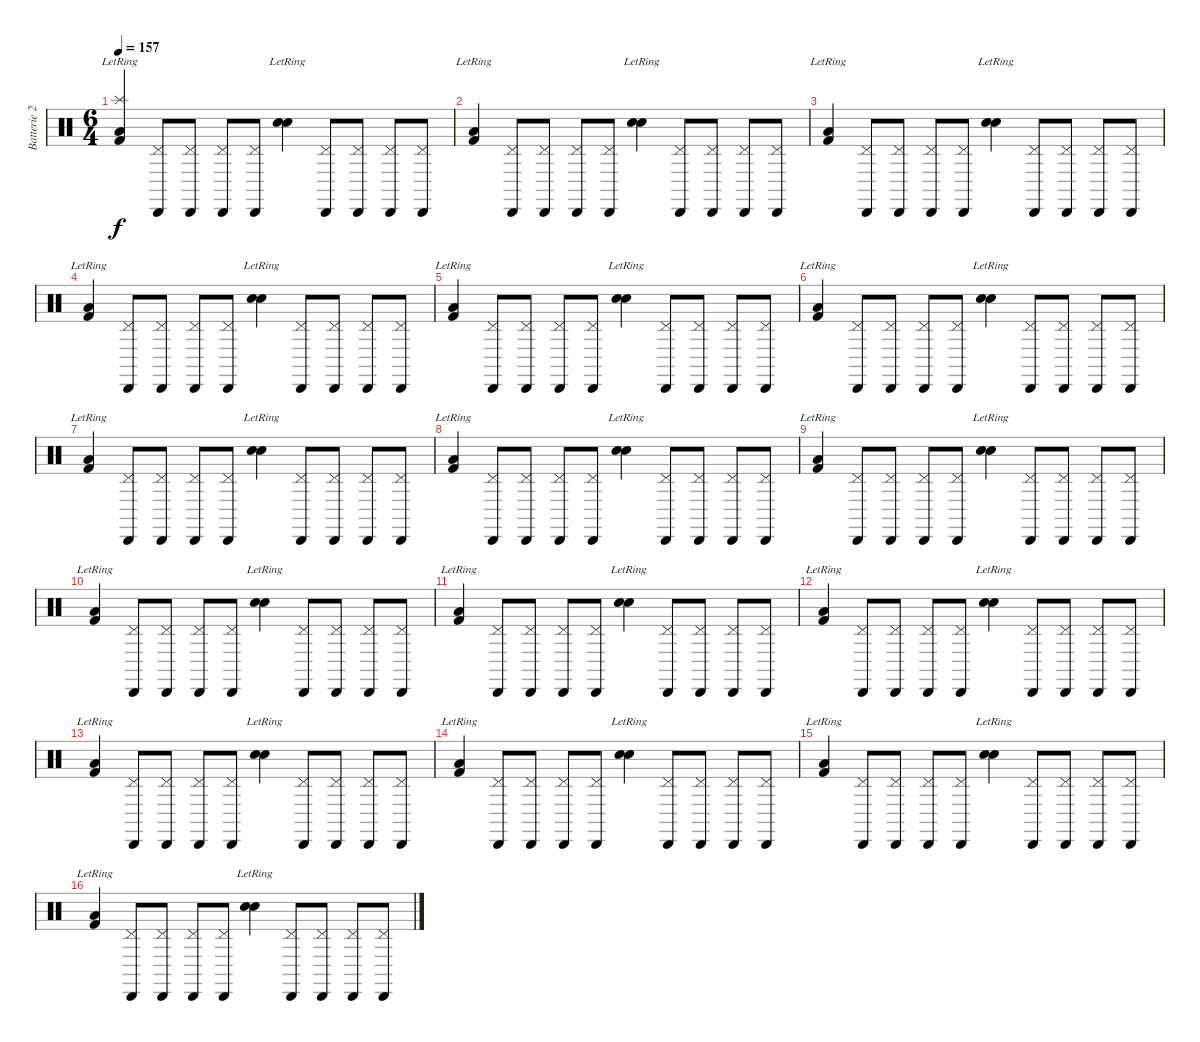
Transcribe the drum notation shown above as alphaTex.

\track ("Batterie 2" "Batterie 2") {instrument percussion}
\staff {score}
\articulation defaults
\ts (6 4)
\tempo 157
\clef neutral
\ks c
("Kick (hit) 2"{lr} "Splash (hit)" "Low Floor Tom (hit)").4{dy f} ("Pedal Hi-Hat (hit)" "Cabasa (hit)").8 ("Pedal Hi-Hat (hit)" "Cabasa (hit)").8 ("Pedal Hi-Hat (hit)" "Cabasa (hit)").8 ("Pedal Hi-Hat (hit)" "Cabasa (hit)").8 ("Snare (hit) 2"{lr} "Electric Snare (hit)").4 ("Pedal Hi-Hat (hit)" "Cabasa (hit)").8 ("Pedal Hi-Hat (hit)" "Cabasa (hit)").8 ("Pedal Hi-Hat (hit)" "Cabasa (hit)").8 ("Pedal Hi-Hat (hit)" "Cabasa (hit)").8 |
("Kick (hit) 2"{lr} "Low Floor Tom (hit)").4 ("Pedal Hi-Hat (hit)" "Cabasa (hit)").8 ("Pedal Hi-Hat (hit)" "Cabasa (hit)").8 ("Pedal Hi-Hat (hit)" "Cabasa (hit)").8 ("Pedal Hi-Hat (hit)" "Cabasa (hit)").8 ("Snare (hit) 2"{lr} "Electric Snare (hit)").4 ("Pedal Hi-Hat (hit)" "Cabasa (hit)").8 ("Pedal Hi-Hat (hit)" "Cabasa (hit)").8 ("Pedal Hi-Hat (hit)" "Cabasa (hit)").8 ("Pedal Hi-Hat (hit)" "Cabasa (hit)").8 |
("Kick (hit) 2"{lr} "Low Floor Tom (hit)").4 ("Pedal Hi-Hat (hit)" "Cabasa (hit)").8 ("Pedal Hi-Hat (hit)" "Cabasa (hit)").8 ("Pedal Hi-Hat (hit)" "Cabasa (hit)").8 ("Pedal Hi-Hat (hit)" "Cabasa (hit)").8 ("Snare (hit) 2"{lr} "Electric Snare (hit)").4 ("Pedal Hi-Hat (hit)" "Cabasa (hit)").8 ("Pedal Hi-Hat (hit)" "Cabasa (hit)").8 ("Pedal Hi-Hat (hit)" "Cabasa (hit)").8 ("Pedal Hi-Hat (hit)" "Cabasa (hit)").8 |
("Kick (hit) 2"{lr} "Low Floor Tom (hit)").4 ("Pedal Hi-Hat (hit)" "Cabasa (hit)").8 ("Pedal Hi-Hat (hit)" "Cabasa (hit)").8 ("Pedal Hi-Hat (hit)" "Cabasa (hit)").8 ("Pedal Hi-Hat (hit)" "Cabasa (hit)").8 ("Snare (hit) 2"{lr} "Electric Snare (hit)").4 ("Pedal Hi-Hat (hit)" "Cabasa (hit)").8 ("Pedal Hi-Hat (hit)" "Cabasa (hit)").8 ("Pedal Hi-Hat (hit)" "Cabasa (hit)").8 ("Pedal Hi-Hat (hit)" "Cabasa (hit)").8 |
("Kick (hit) 2"{lr} "Low Floor Tom (hit)").4 ("Pedal Hi-Hat (hit)" "Cabasa (hit)").8 ("Pedal Hi-Hat (hit)" "Cabasa (hit)").8 ("Pedal Hi-Hat (hit)" "Cabasa (hit)").8 ("Pedal Hi-Hat (hit)" "Cabasa (hit)").8 ("Snare (hit) 2"{lr} "Electric Snare (hit)").4 ("Pedal Hi-Hat (hit)" "Cabasa (hit)").8 ("Pedal Hi-Hat (hit)" "Cabasa (hit)").8 ("Pedal Hi-Hat (hit)" "Cabasa (hit)").8 ("Pedal Hi-Hat (hit)" "Cabasa (hit)").8 |
("Kick (hit) 2"{lr} "Low Floor Tom (hit)").4 ("Pedal Hi-Hat (hit)" "Cabasa (hit)").8 ("Pedal Hi-Hat (hit)" "Cabasa (hit)").8 ("Pedal Hi-Hat (hit)" "Cabasa (hit)").8 ("Pedal Hi-Hat (hit)" "Cabasa (hit)").8 ("Snare (hit) 2"{lr} "Electric Snare (hit)").4 ("Pedal Hi-Hat (hit)" "Cabasa (hit)").8 ("Pedal Hi-Hat (hit)" "Cabasa (hit)").8 ("Pedal Hi-Hat (hit)" "Cabasa (hit)").8 ("Pedal Hi-Hat (hit)" "Cabasa (hit)").8 |
("Kick (hit) 2"{lr} "Low Floor Tom (hit)").4 ("Pedal Hi-Hat (hit)" "Cabasa (hit)").8 ("Pedal Hi-Hat (hit)" "Cabasa (hit)").8 ("Pedal Hi-Hat (hit)" "Cabasa (hit)").8 ("Pedal Hi-Hat (hit)" "Cabasa (hit)").8 ("Snare (hit) 2"{lr} "Electric Snare (hit)").4 ("Pedal Hi-Hat (hit)" "Cabasa (hit)").8 ("Pedal Hi-Hat (hit)" "Cabasa (hit)").8 ("Pedal Hi-Hat (hit)" "Cabasa (hit)").8 ("Pedal Hi-Hat (hit)" "Cabasa (hit)").8 |
("Kick (hit) 2"{lr} "Low Floor Tom (hit)").4 ("Pedal Hi-Hat (hit)" "Cabasa (hit)").8 ("Pedal Hi-Hat (hit)" "Cabasa (hit)").8 ("Pedal Hi-Hat (hit)" "Cabasa (hit)").8 ("Pedal Hi-Hat (hit)" "Cabasa (hit)").8 ("Snare (hit) 2"{lr} "Electric Snare (hit)").4 ("Pedal Hi-Hat (hit)" "Cabasa (hit)").8 ("Pedal Hi-Hat (hit)" "Cabasa (hit)").8 ("Pedal Hi-Hat (hit)" "Cabasa (hit)").8 ("Pedal Hi-Hat (hit)" "Cabasa (hit)").8 |
("Kick (hit) 2"{lr} "Low Floor Tom (hit)").4 ("Pedal Hi-Hat (hit)" "Cabasa (hit)").8 ("Pedal Hi-Hat (hit)" "Cabasa (hit)").8 ("Pedal Hi-Hat (hit)" "Cabasa (hit)").8 ("Pedal Hi-Hat (hit)" "Cabasa (hit)").8 ("Snare (hit) 2"{lr} "Electric Snare (hit)").4 ("Pedal Hi-Hat (hit)" "Cabasa (hit)").8 ("Pedal Hi-Hat (hit)" "Cabasa (hit)").8 ("Pedal Hi-Hat (hit)" "Cabasa (hit)").8 ("Pedal Hi-Hat (hit)" "Cabasa (hit)").8 |
("Kick (hit) 2"{lr} "Low Floor Tom (hit)").4 ("Pedal Hi-Hat (hit)" "Cabasa (hit)").8 ("Pedal Hi-Hat (hit)" "Cabasa (hit)").8 ("Pedal Hi-Hat (hit)" "Cabasa (hit)").8 ("Pedal Hi-Hat (hit)" "Cabasa (hit)").8 ("Snare (hit) 2"{lr} "Electric Snare (hit)").4 ("Pedal Hi-Hat (hit)" "Cabasa (hit)").8 ("Pedal Hi-Hat (hit)" "Cabasa (hit)").8 ("Pedal Hi-Hat (hit)" "Cabasa (hit)").8 ("Pedal Hi-Hat (hit)" "Cabasa (hit)").8 |
("Kick (hit) 2"{lr} "Low Floor Tom (hit)").4 ("Pedal Hi-Hat (hit)" "Cabasa (hit)").8 ("Pedal Hi-Hat (hit)" "Cabasa (hit)").8 ("Pedal Hi-Hat (hit)" "Cabasa (hit)").8 ("Pedal Hi-Hat (hit)" "Cabasa (hit)").8 ("Snare (hit) 2"{lr} "Electric Snare (hit)").4 ("Pedal Hi-Hat (hit)" "Cabasa (hit)").8 ("Pedal Hi-Hat (hit)" "Cabasa (hit)").8 ("Pedal Hi-Hat (hit)" "Cabasa (hit)").8 ("Pedal Hi-Hat (hit)" "Cabasa (hit)").8 |
("Kick (hit) 2"{lr} "Low Floor Tom (hit)").4 ("Pedal Hi-Hat (hit)" "Cabasa (hit)").8 ("Pedal Hi-Hat (hit)" "Cabasa (hit)").8 ("Pedal Hi-Hat (hit)" "Cabasa (hit)").8 ("Pedal Hi-Hat (hit)" "Cabasa (hit)").8 ("Snare (hit) 2"{lr} "Electric Snare (hit)").4 ("Pedal Hi-Hat (hit)" "Cabasa (hit)").8 ("Pedal Hi-Hat (hit)" "Cabasa (hit)").8 ("Pedal Hi-Hat (hit)" "Cabasa (hit)").8 ("Pedal Hi-Hat (hit)" "Cabasa (hit)").8 |
("Kick (hit) 2"{lr} "Low Floor Tom (hit)").4 ("Pedal Hi-Hat (hit)" "Cabasa (hit)").8 ("Pedal Hi-Hat (hit)" "Cabasa (hit)").8 ("Pedal Hi-Hat (hit)" "Cabasa (hit)").8 ("Pedal Hi-Hat (hit)" "Cabasa (hit)").8 ("Snare (hit) 2"{lr} "Electric Snare (hit)").4 ("Pedal Hi-Hat (hit)" "Cabasa (hit)").8 ("Pedal Hi-Hat (hit)" "Cabasa (hit)").8 ("Pedal Hi-Hat (hit)" "Cabasa (hit)").8 ("Pedal Hi-Hat (hit)" "Cabasa (hit)").8 |
("Kick (hit) 2"{lr} "Low Floor Tom (hit)").4 ("Pedal Hi-Hat (hit)" "Cabasa (hit)").8 ("Pedal Hi-Hat (hit)" "Cabasa (hit)").8 ("Pedal Hi-Hat (hit)" "Cabasa (hit)").8 ("Pedal Hi-Hat (hit)" "Cabasa (hit)").8 ("Snare (hit) 2"{lr} "Electric Snare (hit)").4 ("Pedal Hi-Hat (hit)" "Cabasa (hit)").8 ("Pedal Hi-Hat (hit)" "Cabasa (hit)").8 ("Pedal Hi-Hat (hit)" "Cabasa (hit)").8 ("Pedal Hi-Hat (hit)" "Cabasa (hit)").8 |
("Kick (hit) 2"{lr} "Low Floor Tom (hit)").4 ("Pedal Hi-Hat (hit)" "Cabasa (hit)").8 ("Pedal Hi-Hat (hit)" "Cabasa (hit)").8 ("Pedal Hi-Hat (hit)" "Cabasa (hit)").8 ("Pedal Hi-Hat (hit)" "Cabasa (hit)").8 ("Snare (hit) 2"{lr} "Electric Snare (hit)").4 ("Pedal Hi-Hat (hit)" "Cabasa (hit)").8 ("Pedal Hi-Hat (hit)" "Cabasa (hit)").8 ("Pedal Hi-Hat (hit)" "Cabasa (hit)").8 ("Pedal Hi-Hat (hit)" "Cabasa (hit)").8 |
("Kick (hit) 2"{lr} "Low Floor Tom (hit)").4 ("Pedal Hi-Hat (hit)" "Cabasa (hit)").8 ("Pedal Hi-Hat (hit)" "Cabasa (hit)").8 ("Pedal Hi-Hat (hit)" "Cabasa (hit)").8 ("Pedal Hi-Hat (hit)" "Cabasa (hit)").8 ("Snare (hit) 2"{lr} "Electric Snare (hit)").4 ("Pedal Hi-Hat (hit)" "Cabasa (hit)").8 ("Pedal Hi-Hat (hit)" "Cabasa (hit)").8 ("Pedal Hi-Hat (hit)" "Cabasa (hit)").8 ("Pedal Hi-Hat (hit)" "Cabasa (hit)").8
